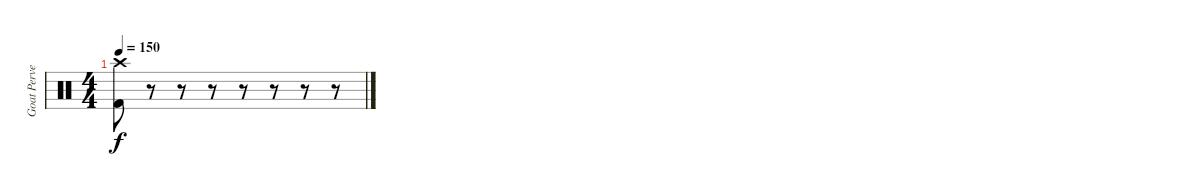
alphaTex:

\track ("Goat Pervertor" "Goat Perve") {instrument percussion}
\staff {score}
\articulation defaults
\ts (4 4)
\tempo 150
\clef neutral
\ks c
("Kick (hit) 2" "Crash high (hit)").8{dy f} r.8 r.8 r.8 r.8 r.8 r.8 r.8
